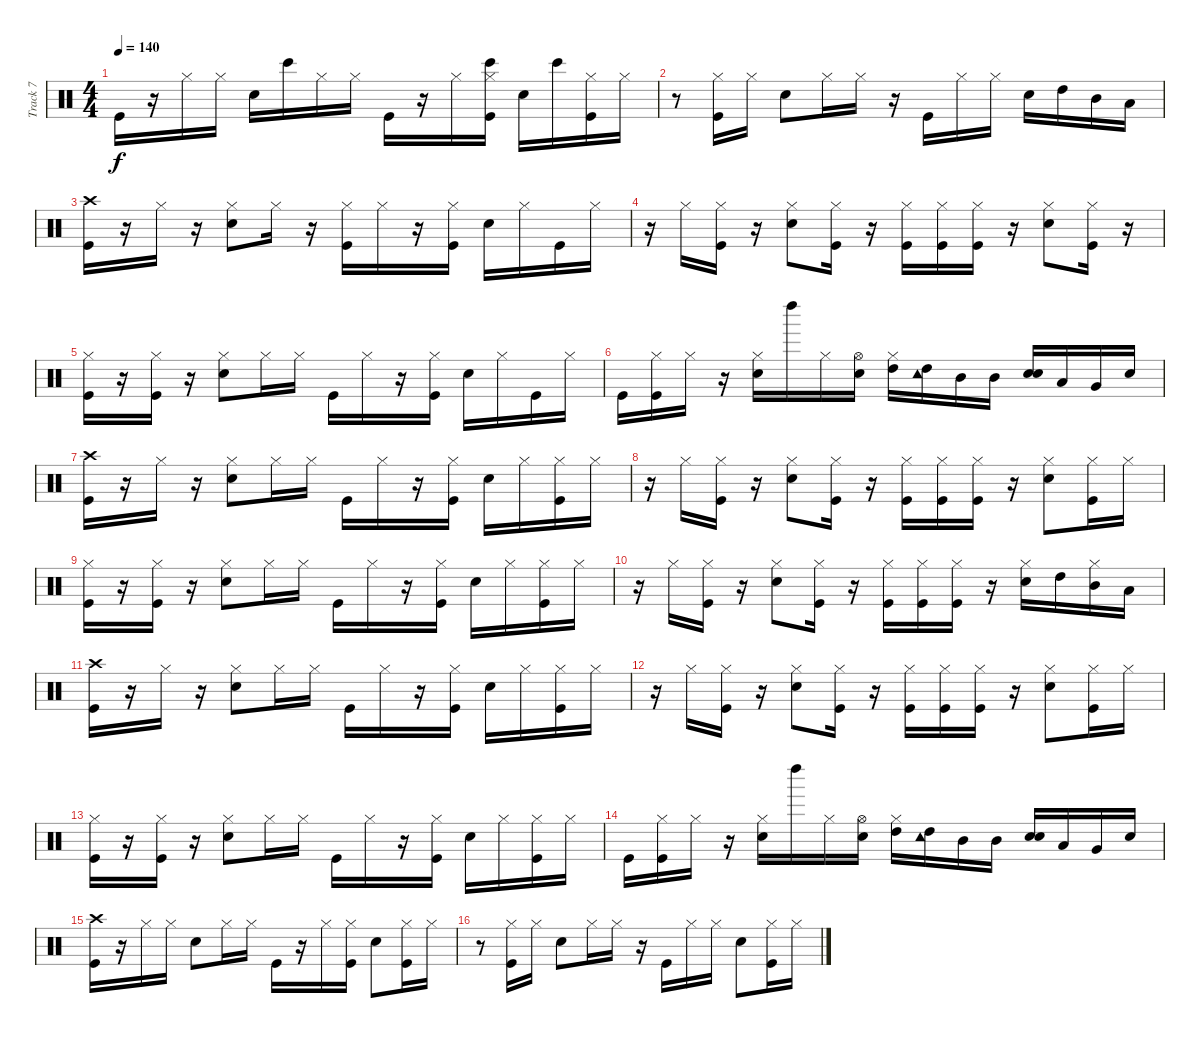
\track ("Track 7" "Track 7") {instrument percussion}
\staff {score}
\articulation defaults
\ts (4 4)
\tempo 140
\clef neutral
\ks c "Kick (hit)".16{dy f}
r.16 "Hi-Hat (closed)".16 "Hi-Hat (closed)".16 "Electric Snare (hit)".16 "Bongo High (hit)".16 "Hi-Hat (closed)".16 "Hi-Hat (closed)".16 "Kick (hit)".16 r.16 "Hi-Hat (closed)".16 ("Kick (hit)" "Hi-Hat (closed)" "Bongo High (hit)").16 "Electric Snare (hit)".16 "Bongo High (hit)".16 ("Hi-Hat (closed)" "Kick (hit)").16 "Hi-Hat (closed)".16 |
r.8 ("Hi-Hat (closed)" "Kick (hit)").16 "Hi-Hat (closed)".16 "Electric Snare (hit)".8 "Hi-Hat (closed)".16 "Hi-Hat (closed)".16 r.16 "Kick (hit)".16 "Hi-Hat (closed)".16 "Hi-Hat (closed)".16 "Electric Snare (hit)".16 "High Tom (hit)".16 "Mid Tom (hit)".16 "Low Tom (hit)".16 |
("Crash high (hit)" "Kick (hit)").16 r.16 "Hi-Hat (closed)".16 r.16 ("Hi-Hat (closed)" "Electric Snare (hit)").8 "Hi-Hat (closed)".16 r.16 ("Hi-Hat (closed)" "Kick (hit)").16 "Hi-Hat (closed)".16 r.16 ("Kick (hit)" "Hi-Hat (closed)").16 "Electric Snare (hit)".16 "Hi-Hat (closed)".16 "Kick (hit)".16 "Hi-Hat (closed)".16 |
r.16 "Hi-Hat (closed)".16 ("Hi-Hat (closed)" "Kick (hit)").16 r.16 ("Hi-Hat (closed)" "Electric Snare (hit)").8 ("Hi-Hat (closed)" "Kick (hit)").16 r.16 ("Hi-Hat (closed)" "Kick (hit)").16 ("Kick (hit)" "Hi-Hat (closed)").16 ("Hi-Hat (closed)" "Kick (hit)").16 r.16 ("Hi-Hat (closed)" "Electric Snare (hit)").8 ("Hi-Hat (closed)" "Kick (hit)").16 r.16 |
("Hi-Hat (closed)" "Kick (hit)").16 r.16 ("Hi-Hat (closed)" "Kick (hit)").16 r.16 ("Hi-Hat (closed)" "Electric Snare (hit)").8 "Hi-Hat (closed)".16 "Hi-Hat (closed)".16 "Kick (hit)".16 "Hi-Hat (closed)".16 r.16 ("Kick (hit)" "Hi-Hat (closed)").16 "Electric Snare (hit)".16 "Hi-Hat (closed)".16 "Kick (hit)".16 "Hi-Hat (closed)".16 |
"Kick (hit)".16 ("Kick (hit)" "Hi-Hat (closed)").16 "Hi-Hat (closed)".16 r.16 ("Hi-Hat (closed)" "Electric Snare (hit)").16 "Left Maraca (hit)".16 "Hi-Hat (closed)".16 ("Hi-Hat (open)" "Electric Snare (hit)").16 ("Hi-Hat (closed)" "High Tom (hit)").16 ("Tambourine (hit)" "High Tom (hit)").16 "Mid Tom (hit)".16 "Mid Tom (hit)".16 ("Electric Snare (hit)" "Electric Snare (hit)").16 "Low Tom (hit)".16 "Very Low Tom (hit)".16 "Electric Snare (hit)".16 |
("Crash high (hit)" "Kick (hit)").16 r.16 "Hi-Hat (closed)".16 r.16 ("Hi-Hat (closed)" "Electric Snare (hit)").8 "Hi-Hat (closed)".16 "Hi-Hat (closed)".16 "Kick (hit)".16 "Hi-Hat (closed)".16 r.16 ("Kick (hit)" "Hi-Hat (closed)").16 "Electric Snare (hit)".16 "Hi-Hat (closed)".16 ("Hi-Hat (closed)" "Kick (hit)").16 "Hi-Hat (closed)".16 |
r.16 "Hi-Hat (closed)".16 ("Hi-Hat (closed)" "Kick (hit)").16 r.16 ("Hi-Hat (closed)" "Electric Snare (hit)").8 ("Hi-Hat (closed)" "Kick (hit)").16 r.16 ("Hi-Hat (closed)" "Kick (hit)").16 ("Kick (hit)" "Hi-Hat (closed)").16 ("Hi-Hat (closed)" "Kick (hit)").16 r.16 ("Hi-Hat (closed)" "Electric Snare (hit)").8 ("Hi-Hat (closed)" "Kick (hit)").16 "Hi-Hat (closed)".16 |
("Hi-Hat (closed)" "Kick (hit)").16 r.16 ("Hi-Hat (closed)" "Kick (hit)").16 r.16 ("Hi-Hat (closed)" "Electric Snare (hit)").8 "Hi-Hat (closed)".16 "Hi-Hat (closed)".16 "Kick (hit)".16 "Hi-Hat (closed)".16 r.16 ("Kick (hit)" "Hi-Hat (closed)").16 "Electric Snare (hit)".16 "Hi-Hat (closed)".16 ("Hi-Hat (closed)" "Kick (hit)").16 "Hi-Hat (closed)".16 |
r.16 "Hi-Hat (closed)".16 ("Hi-Hat (closed)" "Kick (hit)").16 r.16 ("Hi-Hat (closed)" "Electric Snare (hit)").8 ("Hi-Hat (closed)" "Kick (hit)").16 r.16 ("Hi-Hat (closed)" "Kick (hit)").16 ("Kick (hit)" "Hi-Hat (closed)").16 ("Hi-Hat (closed)" "Kick (hit)").16 r.16 ("Hi-Hat (closed)" "Electric Snare (hit)").16 "High Tom (hit)".16 ("Hi-Hat (closed)" "Mid Tom (hit)").16 "Low Tom (hit)".16 |
("Crash high (hit)" "Kick (hit)").16 r.16 "Hi-Hat (closed)".16 r.16 ("Hi-Hat (closed)" "Electric Snare (hit)").8 "Hi-Hat (closed)".16 "Hi-Hat (closed)".16 "Kick (hit)".16 "Hi-Hat (closed)".16 r.16 ("Kick (hit)" "Hi-Hat (closed)").16 "Electric Snare (hit)".16 "Hi-Hat (closed)".16 ("Hi-Hat (closed)" "Kick (hit)").16 "Hi-Hat (closed)".16 |
r.16 "Hi-Hat (closed)".16 ("Hi-Hat (closed)" "Kick (hit)").16 r.16 ("Hi-Hat (closed)" "Electric Snare (hit)").8 ("Hi-Hat (closed)" "Kick (hit)").16 r.16 ("Hi-Hat (closed)" "Kick (hit)").16 ("Kick (hit)" "Hi-Hat (closed)").16 ("Hi-Hat (closed)" "Kick (hit)").16 r.16 ("Hi-Hat (closed)" "Electric Snare (hit)").8 ("Hi-Hat (closed)" "Kick (hit)").16 "Hi-Hat (closed)".16 |
("Hi-Hat (closed)" "Kick (hit)").16 r.16 ("Hi-Hat (closed)" "Kick (hit)").16 r.16 ("Hi-Hat (closed)" "Electric Snare (hit)").8 "Hi-Hat (closed)".16 "Hi-Hat (closed)".16 "Kick (hit)".16 "Hi-Hat (closed)".16 r.16 ("Kick (hit)" "Hi-Hat (closed)").16 "Electric Snare (hit)".16 "Hi-Hat (closed)".16 ("Hi-Hat (closed)" "Kick (hit)").16 "Hi-Hat (closed)".16 |
"Kick (hit)".16 ("Kick (hit)" "Hi-Hat (closed)").16 "Hi-Hat (closed)".16 r.16 ("Hi-Hat (closed)" "Electric Snare (hit)").16 "Left Maraca (hit)".16 "Hi-Hat (closed)".16 ("Hi-Hat (open)" "Electric Snare (hit)").16 ("Hi-Hat (closed)" "High Tom (hit)").16 ("Tambourine (hit)" "High Tom (hit)").16 "Mid Tom (hit)".16 "Mid Tom (hit)".16 ("Electric Snare (hit)" "Electric Snare (hit)").16 "Low Tom (hit)".16 "Very Low Tom (hit)".16 "Electric Snare (hit)".16 |
("Crash high (hit)" "Kick (hit)").16 r.16 "Hi-Hat (closed)".16 "Hi-Hat (closed)".16 "Electric Snare (hit)".8 "Hi-Hat (closed)".16 "Hi-Hat (closed)".16 "Kick (hit)".16 r.16 "Hi-Hat (closed)".16 ("Kick (hit)" "Hi-Hat (closed)").16 "Electric Snare (hit)".8 ("Hi-Hat (closed)" "Kick (hit)").16 "Hi-Hat (closed)".16 |
r.8 ("Hi-Hat (closed)" "Kick (hit)").16 "Hi-Hat (closed)".16 "Electric Snare (hit)".8 "Hi-Hat (closed)".16 "Hi-Hat (closed)".16 r.16 "Kick (hit)".16 "Hi-Hat (closed)".16 "Hi-Hat (closed)".16 "Electric Snare (hit)".8 ("Hi-Hat (closed)" "Kick (hit)").16 "Hi-Hat (closed)".16
